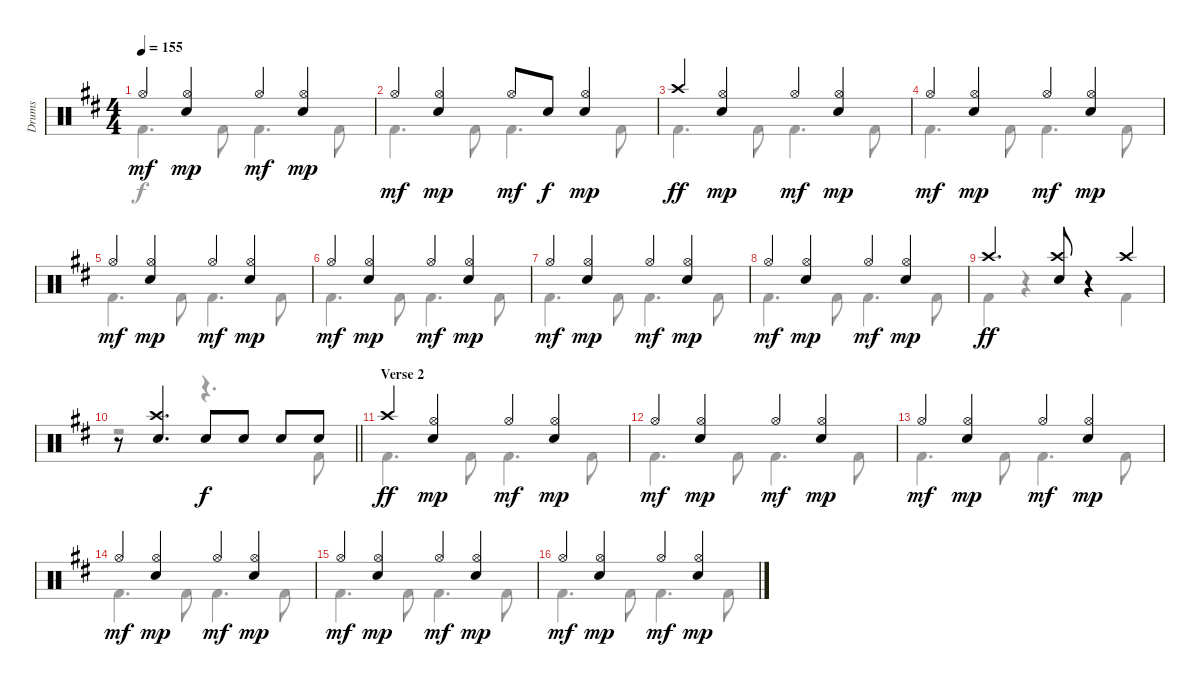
\track ("Drums" "Drums") {instrument percussion}
\staff {score}
\articulation defaults
\voice
\ts (4 4)
\tempo 155
\clef neutral
\ks d "Hi-Hat (open)".4{dy mf}
("Hi-Hat (open)" "Electric Snare (hit)").4{dy mp} "Hi-Hat (open)".4{dy mf} ("Hi-Hat (open)" "Electric Snare (hit)").4{dy mp} |
"Hi-Hat (open)".4{dy mf} ("Hi-Hat (open)" "Electric Snare (hit)").4{dy mp} "Hi-Hat (open)".8{dy mf} "Electric Snare (hit)".8{dy f} ("Hi-Hat (open)" "Electric Snare (hit)").4{dy mp} |
"Crash high (hit)".4{dy ff} ("Hi-Hat (open)" "Electric Snare (hit)").4{dy mp} "Hi-Hat (open)".4{dy mf} ("Hi-Hat (open)" "Electric Snare (hit)").4{dy mp} |
"Hi-Hat (open)".4{dy mf} ("Hi-Hat (open)" "Electric Snare (hit)").4{dy mp} "Hi-Hat (open)".4{dy mf} ("Hi-Hat (open)" "Electric Snare (hit)").4{dy mp} |
"Hi-Hat (open)".4{dy mf} ("Hi-Hat (open)" "Electric Snare (hit)").4{dy mp} "Hi-Hat (open)".4{dy mf} ("Hi-Hat (open)" "Electric Snare (hit)").4{dy mp} |
"Hi-Hat (open)".4{dy mf} ("Hi-Hat (open)" "Electric Snare (hit)").4{dy mp} "Hi-Hat (open)".4{dy mf} ("Hi-Hat (open)" "Electric Snare (hit)").4{dy mp} |
"Hi-Hat (open)".4{dy mf} ("Hi-Hat (open)" "Electric Snare (hit)").4{dy mp} "Hi-Hat (open)".4{dy mf} ("Hi-Hat (open)" "Electric Snare (hit)").4{dy mp} |
"Hi-Hat (open)".4{dy mf} ("Hi-Hat (open)" "Electric Snare (hit)").4{dy mp} "Hi-Hat (open)".4{dy mf} ("Hi-Hat (open)" "Electric Snare (hit)").4{dy mp} |
"Crash high (hit)".4{d dy ff} ("Crash high (hit)" "Electric Snare (hit)").8 r.4 "Crash high (hit)".4 |
\barLineRight lightlight
r.8 ("Crash high (hit)" "Electric Snare (hit)").4{d} "Electric Snare (hit)".8{dy f} "Electric Snare (hit)".8 "Electric Snare (hit)".8 "Electric Snare (hit)".8 |
\section ("" "Verse 2")
"Crash high (hit)".4{dy ff} ("Hi-Hat (open)" "Electric Snare (hit)").4{dy mp} "Hi-Hat (open)".4{dy mf} ("Hi-Hat (open)" "Electric Snare (hit)").4{dy mp} |
"Hi-Hat (open)".4{dy mf} ("Hi-Hat (open)" "Electric Snare (hit)").4{dy mp} "Hi-Hat (open)".4{dy mf} ("Hi-Hat (open)" "Electric Snare (hit)").4{dy mp} |
"Hi-Hat (open)".4{dy mf} ("Hi-Hat (open)" "Electric Snare (hit)").4{dy mp} "Hi-Hat (open)".4{dy mf} ("Hi-Hat (open)" "Electric Snare (hit)").4{dy mp} |
"Hi-Hat (open)".4{dy mf} ("Hi-Hat (open)" "Electric Snare (hit)").4{dy mp} "Hi-Hat (open)".4{dy mf} ("Hi-Hat (open)" "Electric Snare (hit)").4{dy mp} |
"Hi-Hat (open)".4{dy mf} ("Hi-Hat (open)" "Electric Snare (hit)").4{dy mp} "Hi-Hat (open)".4{dy mf} ("Hi-Hat (open)" "Electric Snare (hit)").4{dy mp} |
"Hi-Hat (open)".4{dy mf} ("Hi-Hat (open)" "Electric Snare (hit)").4{dy mp} "Hi-Hat (open)".4{dy mf} ("Hi-Hat (open)" "Electric Snare (hit)").4{dy mp}
\voice
\clef neutral
\ottava regular
\simile none
\ks d "Kick (hit) 2".4{d dy f} "Kick (hit) 2".8 "Kick (hit) 2".4{d} "Kick (hit) 2".8
|
"Kick (hit) 2".4{d} "Kick (hit) 2".8 "Kick (hit) 2".4{d} "Kick (hit) 2".8 |
"Kick (hit) 2".4{d} "Kick (hit) 2".8 "Kick (hit) 2".4{d} "Kick (hit) 2".8 |
"Kick (hit) 2".4{d} "Kick (hit) 2".8 "Kick (hit) 2".4{d} "Kick (hit) 2".8 |
"Kick (hit) 2".4{d} "Kick (hit) 2".8 "Kick (hit) 2".4{d} "Kick (hit) 2".8 |
"Kick (hit) 2".4{d} "Kick (hit) 2".8 "Kick (hit) 2".4{d} "Kick (hit) 2".8 |
"Kick (hit) 2".4{d} "Kick (hit) 2".8 "Kick (hit) 2".4{d} "Kick (hit) 2".8 |
"Kick (hit) 2".4{d} "Kick (hit) 2".8 "Kick (hit) 2".4{d} "Kick (hit) 2".8 |
"Kick (hit) 2".4 r.4 r.4 "Kick (hit) 2".4 |
\barLineRight lightlight
r.2 r.4{d} "Kick (hit) 2".8 |
"Kick (hit) 2".4{d} "Kick (hit) 2".8 "Kick (hit) 2".4{d} "Kick (hit) 2".8 |
"Kick (hit) 2".4{d} "Kick (hit) 2".8 "Kick (hit) 2".4{d} "Kick (hit) 2".8 |
"Kick (hit) 2".4{d} "Kick (hit) 2".8 "Kick (hit) 2".4{d} "Kick (hit) 2".8 |
"Kick (hit) 2".4{d} "Kick (hit) 2".8 "Kick (hit) 2".4{d} "Kick (hit) 2".8 |
"Kick (hit) 2".4{d} "Kick (hit) 2".8 "Kick (hit) 2".4{d} "Kick (hit) 2".8 |
"Kick (hit) 2".4{d} "Kick (hit) 2".8 "Kick (hit) 2".4{d} "Kick (hit) 2".8
